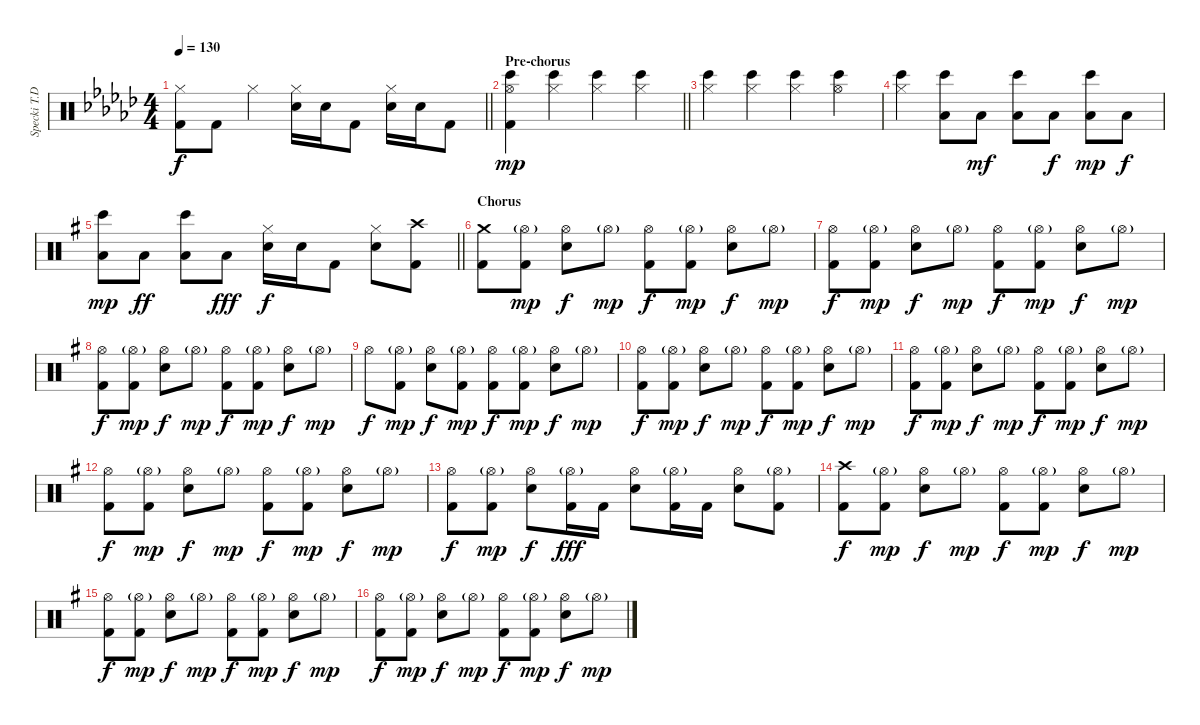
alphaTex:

\track ("Specki T.D. (Drums)" "Specki T.D") {instrument percussion}
\staff {score}
\articulation defaults
\ts (4 4)
\tempo 130
\clef neutral
\barLineRight lightlight
\ks ebminor
("Hi-Hat (closed)" "Kick (hit) 2").8{dy f} "Kick (hit) 2".8 "Hi-Hat (closed)".4 ("Hi-Hat (closed)" "Snare (hit) 2").16 "Snare (hit) 2".16 "Kick (hit) 2".8 ("Hi-Hat (closed)" "Snare (hit) 2").16 "Snare (hit) 2".16 "Kick (hit) 2".8 |
\section ("" "Pre-chorus")
\barLineRight lightlight
("Hi-Hat (open)" "Bongo High (hit)" "Kick (hit) 2").4{dy mp} ("Hi-Hat (closed)" "Bongo High (hit)").4 ("Hi-Hat (closed)" "Bongo High (hit)").4 ("Hi-Hat (closed)" "Bongo High (hit)").4 |
\section ("" "")
("Hi-Hat (closed)" "Bongo High (hit)").4 ("Hi-Hat (closed)" "Bongo High (hit)").4 ("Hi-Hat (closed)" "Bongo High (hit)").4 ("Hi-Hat (open)" "Bongo High (hit)").4 |
("Hi-Hat (closed)" "Bongo High (hit)").4 ("Bongo High (hit)" "Low Floor Tom (hit)").8 "Low Floor Tom (hit)".8{dy mf} ("Bongo High (hit)" "Low Floor Tom (hit)").8 "Low Floor Tom (hit)".8{dy f} ("Bongo High (hit)" "Low Floor Tom (hit)").8{dy mp} "Low Floor Tom (hit)".8{dy f} |
\barLineRight lightlight
\ks g
("Bongo High (hit)" "Low Floor Tom (hit)").8{dy mp} "Low Floor Tom (hit)".8{dy ff} ("Bongo High (hit)" "Low Floor Tom (hit)").8 "Low Floor Tom (hit)".8{dy fff} ("Hi-Hat (closed)" "Snare (hit) 2").16{dy f} "Snare (hit) 2".16 "Kick (hit) 2".8 ("Hi-Hat (closed)" "Snare (hit) 2").8 ("Crash high (hit)" "Kick (hit) 2").8 |
\section ("" "Chorus")
("Crash medium (hit)" "Kick (hit) 2").8 ("Hi-Hat (open)"{g} "Kick (hit) 2").8{dy mp} ("Hi-Hat (open)" "Snare (hit) 2").8{dy f} "Hi-Hat (open)"{g}.8{dy mp} ("Hi-Hat (open)" "Kick (hit) 2").8{dy f} ("Hi-Hat (open)"{g} "Kick (hit) 2").8{dy mp} ("Hi-Hat (open)" "Snare (hit) 2").8{dy f} "Hi-Hat (open)"{g}.8{dy mp} |
("Hi-Hat (open)" "Kick (hit) 2").8{dy f} ("Hi-Hat (open)"{g} "Kick (hit) 2").8{dy mp} ("Hi-Hat (open)" "Snare (hit) 2").8{dy f} "Hi-Hat (open)"{g}.8{dy mp} ("Hi-Hat (open)" "Kick (hit) 2").8{dy f} ("Hi-Hat (open)"{g} "Kick (hit) 2").8{dy mp} ("Hi-Hat (open)" "Snare (hit) 2").8{dy f} "Hi-Hat (open)"{g}.8{dy mp} |
("Hi-Hat (open)" "Kick (hit) 2").8{dy f} ("Hi-Hat (open)"{g} "Kick (hit) 2").8{dy mp} ("Hi-Hat (open)" "Snare (hit) 2").8{dy f} "Hi-Hat (open)"{g}.8{dy mp} ("Hi-Hat (open)" "Kick (hit) 2").8{dy f} ("Hi-Hat (open)"{g} "Kick (hit) 2").8{dy mp} ("Hi-Hat (open)" "Snare (hit) 2").8{dy f} "Hi-Hat (open)"{g}.8{dy mp} |
"Hi-Hat (open)".8{dy f} ("Hi-Hat (open)"{g} "Kick (hit) 2").8{dy mp} ("Hi-Hat (open)" "Snare (hit) 2").8{dy f} ("Hi-Hat (open)"{g} "Kick (hit) 2").8{dy mp} ("Hi-Hat (open)" "Kick (hit) 2").8{dy f} ("Hi-Hat (open)"{g} "Kick (hit) 2").8{dy mp} ("Hi-Hat (open)" "Snare (hit) 2").8{dy f} "Hi-Hat (open)"{g}.8{dy mp} |
("Hi-Hat (open)" "Kick (hit) 2").8{dy f} ("Hi-Hat (open)"{g} "Kick (hit) 2").8{dy mp} ("Hi-Hat (open)" "Snare (hit) 2").8{dy f} "Hi-Hat (open)"{g}.8{dy mp} ("Hi-Hat (open)" "Kick (hit) 2").8{dy f} ("Hi-Hat (open)"{g} "Kick (hit) 2").8{dy mp} ("Hi-Hat (open)" "Snare (hit) 2").8{dy f} "Hi-Hat (open)"{g}.8{dy mp} |
("Hi-Hat (open)" "Kick (hit) 2").8{dy f} ("Hi-Hat (open)"{g} "Kick (hit) 2").8{dy mp} ("Hi-Hat (open)" "Snare (hit) 2").8{dy f} "Hi-Hat (open)"{g}.8{dy mp} ("Hi-Hat (open)" "Kick (hit) 2").8{dy f} ("Hi-Hat (open)"{g} "Kick (hit) 2").8{dy mp} ("Hi-Hat (open)" "Snare (hit) 2").8{dy f} "Hi-Hat (open)"{g}.8{dy mp} |
("Hi-Hat (open)" "Kick (hit) 2").8{dy f} ("Hi-Hat (open)"{g} "Kick (hit) 2").8{dy mp} ("Hi-Hat (open)" "Snare (hit) 2").8{dy f} "Hi-Hat (open)"{g}.8{dy mp} ("Hi-Hat (open)" "Kick (hit) 2").8{dy f} ("Hi-Hat (open)"{g} "Kick (hit) 2").8{dy mp} ("Hi-Hat (open)" "Snare (hit) 2").8{dy f} "Hi-Hat (open)"{g}.8{dy mp} |
("Hi-Hat (open)" "Kick (hit) 2").8{dy f} ("Hi-Hat (open)"{g} "Kick (hit) 2").8{dy mp} ("Hi-Hat (open)" "Snare (hit) 2").8{dy f} ("Hi-Hat (open)"{g} "Kick (hit) 2").16{dy fff} "Kick (hit) 2".16 ("Hi-Hat (open)" "Snare (hit) 2").8 ("Hi-Hat (open)"{g} "Kick (hit) 2").16 "Kick (hit) 2".16 ("Hi-Hat (open)" "Snare (hit) 2").8 ("Hi-Hat (open)"{g} "Kick (hit) 2").8 |
("Crash high (hit)" "Kick (hit) 2").8{dy f} ("Hi-Hat (open)"{g} "Kick (hit) 2").8{dy mp} ("Hi-Hat (open)" "Snare (hit) 2").8{dy f} "Hi-Hat (open)"{g}.8{dy mp} ("Hi-Hat (open)" "Kick (hit) 2").8{dy f} ("Hi-Hat (open)"{g} "Kick (hit) 2").8{dy mp} ("Hi-Hat (open)" "Snare (hit) 2").8{dy f} "Hi-Hat (open)"{g}.8{dy mp} |
("Hi-Hat (open)" "Kick (hit) 2").8{dy f} ("Hi-Hat (open)"{g} "Kick (hit) 2").8{dy mp} ("Hi-Hat (open)" "Snare (hit) 2").8{dy f} "Hi-Hat (open)"{g}.8{dy mp} ("Hi-Hat (open)" "Kick (hit) 2").8{dy f} ("Hi-Hat (open)"{g} "Kick (hit) 2").8{dy mp} ("Hi-Hat (open)" "Snare (hit) 2").8{dy f} "Hi-Hat (open)"{g}.8{dy mp} |
("Hi-Hat (open)" "Kick (hit) 2").8{dy f} ("Hi-Hat (open)"{g} "Kick (hit) 2").8{dy mp} ("Hi-Hat (open)" "Snare (hit) 2").8{dy f} "Hi-Hat (open)"{g}.8{dy mp} ("Hi-Hat (open)" "Kick (hit) 2").8{dy f} ("Hi-Hat (open)"{g} "Kick (hit) 2").8{dy mp} ("Hi-Hat (open)" "Snare (hit) 2").8{dy f} "Hi-Hat (open)"{g}.8{dy mp}
